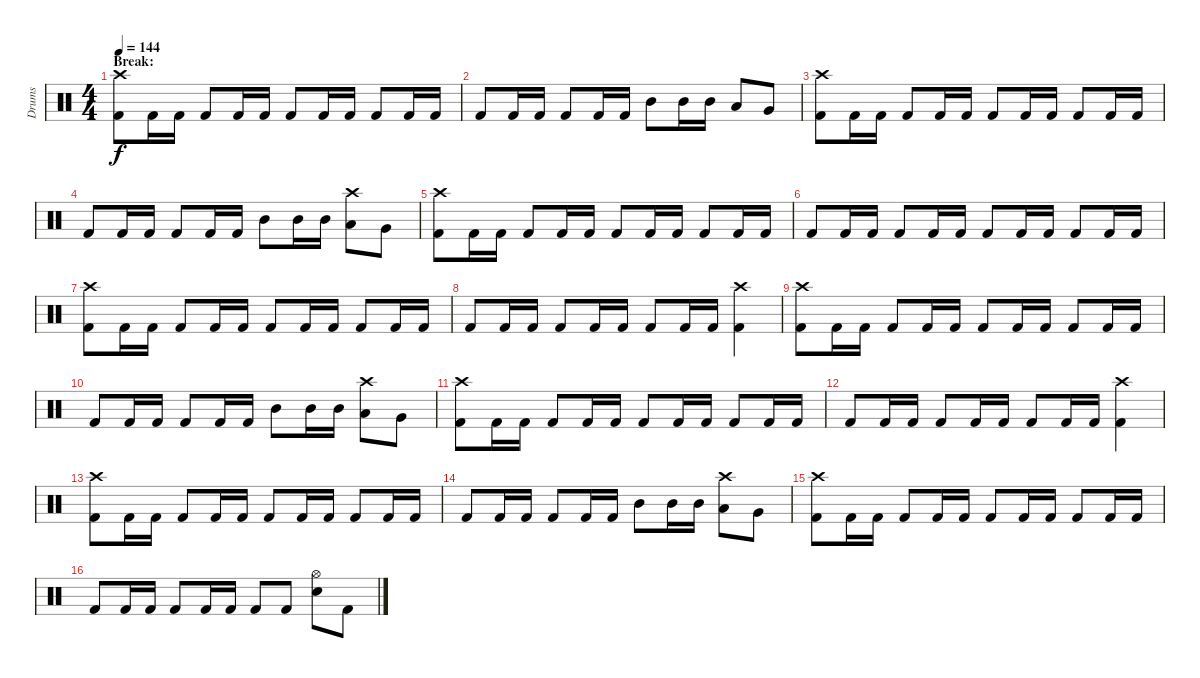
\track ("Drums" "Drums") {instrument percussion}
\staff {score}
\articulation defaults
\ts (4 4)
\section ("" "Break:")
\tempo 144
\clef neutral
\ks c
("Crash high (hit)" "Kick (hit) 2").8{dy f} "Kick (hit) 2".16 "Kick (hit) 2".16 "Kick (hit) 2".8 "Kick (hit) 2".16 "Kick (hit) 2".16 "Kick (hit) 2".8 "Kick (hit) 2".16 "Kick (hit) 2".16 "Kick (hit) 2".8 "Kick (hit) 2".16 "Kick (hit) 2".16 |
"Kick (hit) 2".8 "Kick (hit) 2".16 "Kick (hit) 2".16 "Kick (hit) 2".8 "Kick (hit) 2".16 "Kick (hit) 2".16 "Mid Tom (hit)".8 "Mid Tom (hit)".16 "Mid Tom (hit)".16 "Low Tom (hit)".8 "Very Low Tom (hit)".8 |
("Crash high (hit)" "Kick (hit) 2").8 "Kick (hit) 2".16 "Kick (hit) 2".16 "Kick (hit) 2".8 "Kick (hit) 2".16 "Kick (hit) 2".16 "Kick (hit) 2".8 "Kick (hit) 2".16 "Kick (hit) 2".16 "Kick (hit) 2".8 "Kick (hit) 2".16 "Kick (hit) 2".16 |
"Kick (hit) 2".8 "Kick (hit) 2".16 "Kick (hit) 2".16 "Kick (hit) 2".8 "Kick (hit) 2".16 "Kick (hit) 2".16 "Mid Tom (hit)".8 "Mid Tom (hit)".16 "Mid Tom (hit)".16 ("Crash high (hit)" "Low Tom (hit)").8 "Very Low Tom (hit)".8 |
("Crash high (hit)" "Kick (hit) 2").8 "Kick (hit) 2".16 "Kick (hit) 2".16 "Kick (hit) 2".8 "Kick (hit) 2".16 "Kick (hit) 2".16 "Kick (hit) 2".8 "Kick (hit) 2".16 "Kick (hit) 2".16 "Kick (hit) 2".8 "Kick (hit) 2".16 "Kick (hit) 2".16 |
"Kick (hit) 2".8 "Kick (hit) 2".16 "Kick (hit) 2".16 "Kick (hit) 2".8 "Kick (hit) 2".16 "Kick (hit) 2".16 "Kick (hit) 2".8 "Kick (hit) 2".16 "Kick (hit) 2".16 "Kick (hit) 2".8 "Kick (hit) 2".16 "Kick (hit) 2".16 |
("Crash high (hit)" "Kick (hit) 2").8 "Kick (hit) 2".16 "Kick (hit) 2".16 "Kick (hit) 2".8 "Kick (hit) 2".16 "Kick (hit) 2".16 "Kick (hit) 2".8 "Kick (hit) 2".16 "Kick (hit) 2".16 "Kick (hit) 2".8 "Kick (hit) 2".16 "Kick (hit) 2".16 |
"Kick (hit) 2".8 "Kick (hit) 2".16 "Kick (hit) 2".16 "Kick (hit) 2".8 "Kick (hit) 2".16 "Kick (hit) 2".16 "Kick (hit) 2".8 "Kick (hit) 2".16 "Kick (hit) 2".16 ("Crash high (hit)" "Kick (hit) 2").4 |
("Crash high (hit)" "Kick (hit) 2").8 "Kick (hit) 2".16 "Kick (hit) 2".16 "Kick (hit) 2".8 "Kick (hit) 2".16 "Kick (hit) 2".16 "Kick (hit) 2".8 "Kick (hit) 2".16 "Kick (hit) 2".16 "Kick (hit) 2".8 "Kick (hit) 2".16 "Kick (hit) 2".16 |
"Kick (hit) 2".8 "Kick (hit) 2".16 "Kick (hit) 2".16 "Kick (hit) 2".8 "Kick (hit) 2".16 "Kick (hit) 2".16 "Mid Tom (hit)".8 "Mid Tom (hit)".16 "Mid Tom (hit)".16 ("Crash high (hit)" "Low Tom (hit)").8 "Very Low Tom (hit)".8 |
("Crash high (hit)" "Kick (hit) 2").8 "Kick (hit) 2".16 "Kick (hit) 2".16 "Kick (hit) 2".8 "Kick (hit) 2".16 "Kick (hit) 2".16 "Kick (hit) 2".8 "Kick (hit) 2".16 "Kick (hit) 2".16 "Kick (hit) 2".8 "Kick (hit) 2".16 "Kick (hit) 2".16 |
"Kick (hit) 2".8 "Kick (hit) 2".16 "Kick (hit) 2".16 "Kick (hit) 2".8 "Kick (hit) 2".16 "Kick (hit) 2".16 "Kick (hit) 2".8 "Kick (hit) 2".16 "Kick (hit) 2".16 ("Crash high (hit)" "Kick (hit) 2").4 |
("Crash high (hit)" "Kick (hit) 2").8 "Kick (hit) 2".16 "Kick (hit) 2".16 "Kick (hit) 2".8 "Kick (hit) 2".16 "Kick (hit) 2".16 "Kick (hit) 2".8 "Kick (hit) 2".16 "Kick (hit) 2".16 "Kick (hit) 2".8 "Kick (hit) 2".16 "Kick (hit) 2".16 |
"Kick (hit) 2".8 "Kick (hit) 2".16 "Kick (hit) 2".16 "Kick (hit) 2".8 "Kick (hit) 2".16 "Kick (hit) 2".16 "Mid Tom (hit)".8 "Mid Tom (hit)".16 "Mid Tom (hit)".16 ("Crash high (hit)" "Low Tom (hit)").8 "Very Low Tom (hit)".8 |
("Crash high (hit)" "Kick (hit) 2").8 "Kick (hit) 2".16 "Kick (hit) 2".16 "Kick (hit) 2".8 "Kick (hit) 2".16 "Kick (hit) 2".16 "Kick (hit) 2".8 "Kick (hit) 2".16 "Kick (hit) 2".16 "Kick (hit) 2".8 "Kick (hit) 2".16 "Kick (hit) 2".16 |
"Kick (hit) 2".8 "Kick (hit) 2".16 "Kick (hit) 2".16 "Kick (hit) 2".8 "Kick (hit) 2".16 "Kick (hit) 2".16 "Kick (hit) 2".8 "Kick (hit) 2".8 ("Hi-Hat (open)" "Snare (hit) 2").8 "Kick (hit) 2".8
